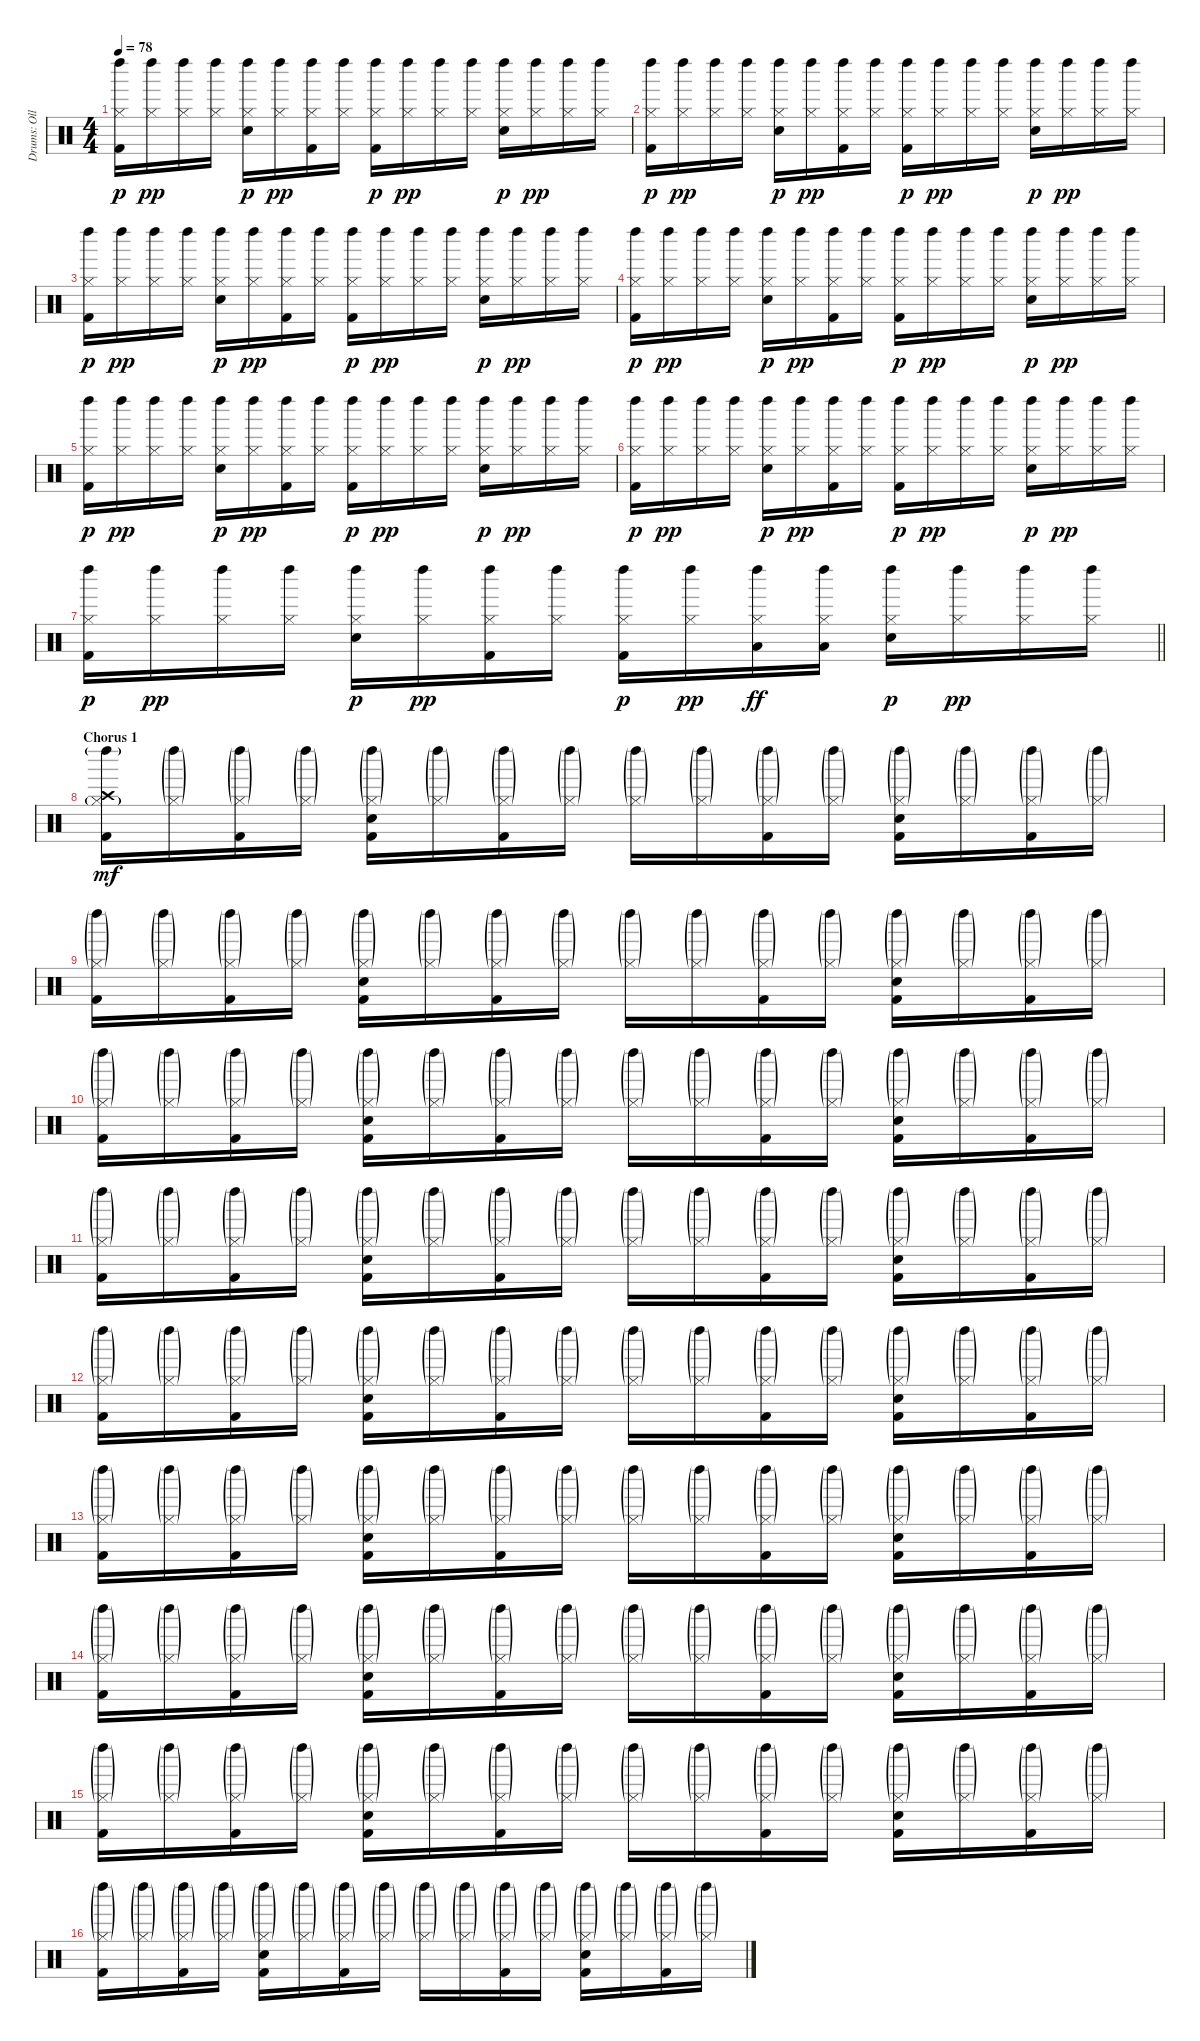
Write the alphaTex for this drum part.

\track ("Drums: Olle Romeo" "Drums: Oll") {instrument percussion}
\staff {score}
\articulation defaults
\ts (4 4)
\tempo 78
\clef neutral
\ks c
("Kick (hit) 2" "Hi-Hat (closed)" "Left Maraca (hit)").16{dy p} ("Hi-Hat (closed)" "Left Maraca (hit)").16{dy pp} ("Hi-Hat (closed)" "Left Maraca (hit)").16 ("Hi-Hat (closed)" "Left Maraca (hit)").16 ("Snare (hit) 2" "Hi-Hat (closed)" "Left Maraca (hit)").16{dy p} ("Hi-Hat (closed)" "Left Maraca (hit)").16{dy pp} ("Kick (hit) 2" "Hi-Hat (closed)" "Left Maraca (hit)").16 ("Hi-Hat (closed)" "Left Maraca (hit)").16 ("Kick (hit) 2" "Hi-Hat (closed)" "Left Maraca (hit)").16{dy p} ("Hi-Hat (closed)" "Left Maraca (hit)").16{dy pp} ("Hi-Hat (closed)" "Left Maraca (hit)").16 ("Hi-Hat (closed)" "Left Maraca (hit)").16 ("Snare (hit) 2" "Hi-Hat (closed)" "Left Maraca (hit)").16{dy p} ("Hi-Hat (closed)" "Left Maraca (hit)").16{dy pp} ("Hi-Hat (closed)" "Left Maraca (hit)").16 ("Hi-Hat (closed)" "Left Maraca (hit)").16 |
("Kick (hit) 2" "Hi-Hat (closed)" "Left Maraca (hit)").16{dy p} ("Hi-Hat (closed)" "Left Maraca (hit)").16{dy pp} ("Hi-Hat (closed)" "Left Maraca (hit)").16 ("Hi-Hat (closed)" "Left Maraca (hit)").16 ("Snare (hit) 2" "Hi-Hat (closed)" "Left Maraca (hit)").16{dy p} ("Hi-Hat (closed)" "Left Maraca (hit)").16{dy pp} ("Kick (hit) 2" "Hi-Hat (closed)" "Left Maraca (hit)").16 ("Hi-Hat (closed)" "Left Maraca (hit)").16 ("Kick (hit) 2" "Hi-Hat (closed)" "Left Maraca (hit)").16{dy p} ("Hi-Hat (closed)" "Left Maraca (hit)").16{dy pp} ("Hi-Hat (closed)" "Left Maraca (hit)").16 ("Hi-Hat (closed)" "Left Maraca (hit)").16 ("Snare (hit) 2" "Hi-Hat (closed)" "Left Maraca (hit)").16{dy p} ("Hi-Hat (closed)" "Left Maraca (hit)").16{dy pp} ("Hi-Hat (closed)" "Left Maraca (hit)").16 ("Hi-Hat (closed)" "Left Maraca (hit)").16 |
("Kick (hit) 2" "Hi-Hat (closed)" "Left Maraca (hit)").16{dy p} ("Hi-Hat (closed)" "Left Maraca (hit)").16{dy pp} ("Hi-Hat (closed)" "Left Maraca (hit)").16 ("Hi-Hat (closed)" "Left Maraca (hit)").16 ("Snare (hit) 2" "Hi-Hat (closed)" "Left Maraca (hit)").16{dy p} ("Hi-Hat (closed)" "Left Maraca (hit)").16{dy pp} ("Kick (hit) 2" "Hi-Hat (closed)" "Left Maraca (hit)").16 ("Hi-Hat (closed)" "Left Maraca (hit)").16 ("Kick (hit) 2" "Hi-Hat (closed)" "Left Maraca (hit)").16{dy p} ("Hi-Hat (closed)" "Left Maraca (hit)").16{dy pp} ("Hi-Hat (closed)" "Left Maraca (hit)").16 ("Hi-Hat (closed)" "Left Maraca (hit)").16 ("Snare (hit) 2" "Hi-Hat (closed)" "Left Maraca (hit)").16{dy p} ("Hi-Hat (closed)" "Left Maraca (hit)").16{dy pp} ("Hi-Hat (closed)" "Left Maraca (hit)").16 ("Hi-Hat (closed)" "Left Maraca (hit)").16 |
("Kick (hit) 2" "Hi-Hat (closed)" "Left Maraca (hit)").16{dy p} ("Hi-Hat (closed)" "Left Maraca (hit)").16{dy pp} ("Hi-Hat (closed)" "Left Maraca (hit)").16 ("Hi-Hat (closed)" "Left Maraca (hit)").16 ("Snare (hit) 2" "Hi-Hat (closed)" "Left Maraca (hit)").16{dy p} ("Hi-Hat (closed)" "Left Maraca (hit)").16{dy pp} ("Kick (hit) 2" "Hi-Hat (closed)" "Left Maraca (hit)").16 ("Hi-Hat (closed)" "Left Maraca (hit)").16 ("Kick (hit) 2" "Hi-Hat (closed)" "Left Maraca (hit)").16{dy p} ("Hi-Hat (closed)" "Left Maraca (hit)").16{dy pp} ("Hi-Hat (closed)" "Left Maraca (hit)").16 ("Hi-Hat (closed)" "Left Maraca (hit)").16 ("Snare (hit) 2" "Hi-Hat (closed)" "Left Maraca (hit)").16{dy p} ("Hi-Hat (closed)" "Left Maraca (hit)").16{dy pp} ("Hi-Hat (closed)" "Left Maraca (hit)").16 ("Hi-Hat (closed)" "Left Maraca (hit)").16 |
("Kick (hit) 2" "Hi-Hat (closed)" "Left Maraca (hit)").16{dy p} ("Hi-Hat (closed)" "Left Maraca (hit)").16{dy pp} ("Hi-Hat (closed)" "Left Maraca (hit)").16 ("Hi-Hat (closed)" "Left Maraca (hit)").16 ("Snare (hit) 2" "Hi-Hat (closed)" "Left Maraca (hit)").16{dy p} ("Hi-Hat (closed)" "Left Maraca (hit)").16{dy pp} ("Kick (hit) 2" "Hi-Hat (closed)" "Left Maraca (hit)").16 ("Hi-Hat (closed)" "Left Maraca (hit)").16 ("Kick (hit) 2" "Hi-Hat (closed)" "Left Maraca (hit)").16{dy p} ("Hi-Hat (closed)" "Left Maraca (hit)").16{dy pp} ("Hi-Hat (closed)" "Left Maraca (hit)").16 ("Hi-Hat (closed)" "Left Maraca (hit)").16 ("Snare (hit) 2" "Hi-Hat (closed)" "Left Maraca (hit)").16{dy p} ("Hi-Hat (closed)" "Left Maraca (hit)").16{dy pp} ("Hi-Hat (closed)" "Left Maraca (hit)").16 ("Hi-Hat (closed)" "Left Maraca (hit)").16 |
("Kick (hit) 2" "Hi-Hat (closed)" "Left Maraca (hit)").16{dy p} ("Hi-Hat (closed)" "Left Maraca (hit)").16{dy pp} ("Hi-Hat (closed)" "Left Maraca (hit)").16 ("Hi-Hat (closed)" "Left Maraca (hit)").16 ("Snare (hit) 2" "Hi-Hat (closed)" "Left Maraca (hit)").16{dy p} ("Hi-Hat (closed)" "Left Maraca (hit)").16{dy pp} ("Kick (hit) 2" "Hi-Hat (closed)" "Left Maraca (hit)").16 ("Hi-Hat (closed)" "Left Maraca (hit)").16 ("Kick (hit) 2" "Hi-Hat (closed)" "Left Maraca (hit)").16{dy p} ("Hi-Hat (closed)" "Left Maraca (hit)").16{dy pp} ("Hi-Hat (closed)" "Left Maraca (hit)").16 ("Hi-Hat (closed)" "Left Maraca (hit)").16 ("Snare (hit) 2" "Hi-Hat (closed)" "Left Maraca (hit)").16{dy p} ("Hi-Hat (closed)" "Left Maraca (hit)").16{dy pp} ("Hi-Hat (closed)" "Left Maraca (hit)").16 ("Hi-Hat (closed)" "Left Maraca (hit)").16 |
\barLineRight lightlight
("Kick (hit) 2" "Hi-Hat (closed)" "Left Maraca (hit)").16{dy p} ("Hi-Hat (closed)" "Left Maraca (hit)").16{dy pp} ("Hi-Hat (closed)" "Left Maraca (hit)").16 ("Hi-Hat (closed)" "Left Maraca (hit)").16 ("Snare (hit) 2" "Hi-Hat (closed)" "Left Maraca (hit)").16{dy p} ("Hi-Hat (closed)" "Left Maraca (hit)").16{dy pp} ("Kick (hit) 2" "Hi-Hat (closed)" "Left Maraca (hit)").16 ("Hi-Hat (closed)" "Left Maraca (hit)").16 ("Kick (hit) 2" "Hi-Hat (closed)" "Left Maraca (hit)").16{dy p} ("Hi-Hat (closed)" "Left Maraca (hit)").16{dy pp} ("Hi-Hat (closed)" "Left Maraca (hit)" "Low Floor Tom (hit)").16{dy ff} ("Hi-Hat (closed)" "Left Maraca (hit)" "Low Floor Tom (hit)").16 ("Snare (hit) 2" "Hi-Hat (closed)" "Left Maraca (hit)").16{dy p} ("Hi-Hat (closed)" "Left Maraca (hit)").16{dy pp} ("Hi-Hat (closed)" "Left Maraca (hit)").16 ("Hi-Hat (closed)" "Left Maraca (hit)").16 |
\section ("" "Chorus 1")
("Crash high (hit)" "Hi-Hat (closed)"{g} "Kick (hit) 2" "Left Maraca (hit)"{g}).16{dy mf} ("Hi-Hat (closed)"{g} "Left Maraca (hit)"{g}).16 ("Hi-Hat (closed)"{g} "Kick (hit) 2" "Left Maraca (hit)"{g}).16 ("Hi-Hat (closed)"{g} "Left Maraca (hit)"{g}).16 ("Hi-Hat (closed)"{g} "Snare (hit) 2" "Kick (hit) 2" "Left Maraca (hit)"{g}).16 ("Hi-Hat (closed)"{g} "Left Maraca (hit)"{g}).16 ("Hi-Hat (closed)"{g} "Kick (hit) 2" "Left Maraca (hit)"{g}).16 ("Hi-Hat (closed)"{g} "Left Maraca (hit)"{g}).16 ("Hi-Hat (closed)"{g} "Left Maraca (hit)"{g}).16 ("Hi-Hat (closed)"{g} "Left Maraca (hit)"{g}).16 ("Hi-Hat (closed)"{g} "Kick (hit) 2" "Left Maraca (hit)"{g}).16 ("Hi-Hat (closed)"{g} "Left Maraca (hit)"{g}).16 ("Hi-Hat (closed)"{g} "Snare (hit) 2" "Kick (hit) 2" "Left Maraca (hit)"{g}).16 ("Hi-Hat (closed)"{g} "Left Maraca (hit)"{g}).16 ("Hi-Hat (closed)"{g} "Kick (hit) 2" "Left Maraca (hit)"{g}).16 ("Hi-Hat (closed)"{g} "Left Maraca (hit)"{g}).16 |
("Hi-Hat (closed)"{g} "Kick (hit) 2" "Left Maraca (hit)"{g}).16 ("Hi-Hat (closed)"{g} "Left Maraca (hit)"{g}).16 ("Hi-Hat (closed)"{g} "Kick (hit) 2" "Left Maraca (hit)"{g}).16 ("Hi-Hat (closed)"{g} "Left Maraca (hit)"{g}).16 ("Hi-Hat (closed)"{g} "Snare (hit) 2" "Kick (hit) 2" "Left Maraca (hit)"{g}).16 ("Hi-Hat (closed)"{g} "Left Maraca (hit)"{g}).16 ("Hi-Hat (closed)"{g} "Kick (hit) 2" "Left Maraca (hit)"{g}).16 ("Hi-Hat (closed)"{g} "Left Maraca (hit)"{g}).16 ("Hi-Hat (closed)"{g} "Left Maraca (hit)"{g}).16 ("Hi-Hat (closed)"{g} "Left Maraca (hit)"{g}).16 ("Hi-Hat (closed)"{g} "Kick (hit) 2" "Left Maraca (hit)"{g}).16 ("Hi-Hat (closed)"{g} "Left Maraca (hit)"{g}).16 ("Hi-Hat (closed)"{g} "Snare (hit) 2" "Kick (hit) 2" "Left Maraca (hit)"{g}).16 ("Hi-Hat (closed)"{g} "Left Maraca (hit)"{g}).16 ("Hi-Hat (closed)"{g} "Kick (hit) 2" "Left Maraca (hit)"{g}).16 ("Hi-Hat (closed)"{g} "Left Maraca (hit)"{g}).16 |
("Hi-Hat (closed)"{g} "Kick (hit) 2" "Left Maraca (hit)"{g}).16 ("Hi-Hat (closed)"{g} "Left Maraca (hit)"{g}).16 ("Hi-Hat (closed)"{g} "Kick (hit) 2" "Left Maraca (hit)"{g}).16 ("Hi-Hat (closed)"{g} "Left Maraca (hit)"{g}).16 ("Hi-Hat (closed)"{g} "Snare (hit) 2" "Kick (hit) 2" "Left Maraca (hit)"{g}).16 ("Hi-Hat (closed)"{g} "Left Maraca (hit)"{g}).16 ("Hi-Hat (closed)"{g} "Kick (hit) 2" "Left Maraca (hit)"{g}).16 ("Hi-Hat (closed)"{g} "Left Maraca (hit)"{g}).16 ("Hi-Hat (closed)"{g} "Left Maraca (hit)"{g}).16 ("Hi-Hat (closed)"{g} "Left Maraca (hit)"{g}).16 ("Hi-Hat (closed)"{g} "Kick (hit) 2" "Left Maraca (hit)"{g}).16 ("Hi-Hat (closed)"{g} "Left Maraca (hit)"{g}).16 ("Hi-Hat (closed)"{g} "Snare (hit) 2" "Kick (hit) 2" "Left Maraca (hit)"{g}).16 ("Hi-Hat (closed)"{g} "Left Maraca (hit)"{g}).16 ("Hi-Hat (closed)"{g} "Kick (hit) 2" "Left Maraca (hit)"{g}).16 ("Hi-Hat (closed)"{g} "Left Maraca (hit)"{g}).16 |
("Hi-Hat (closed)"{g} "Kick (hit) 2" "Left Maraca (hit)"{g}).16 ("Hi-Hat (closed)"{g} "Left Maraca (hit)"{g}).16 ("Hi-Hat (closed)"{g} "Kick (hit) 2" "Left Maraca (hit)"{g}).16 ("Hi-Hat (closed)"{g} "Left Maraca (hit)"{g}).16 ("Hi-Hat (closed)"{g} "Snare (hit) 2" "Kick (hit) 2" "Left Maraca (hit)"{g}).16 ("Hi-Hat (closed)"{g} "Left Maraca (hit)"{g}).16 ("Hi-Hat (closed)"{g} "Kick (hit) 2" "Left Maraca (hit)"{g}).16 ("Hi-Hat (closed)"{g} "Left Maraca (hit)"{g}).16 ("Hi-Hat (closed)"{g} "Left Maraca (hit)"{g}).16 ("Hi-Hat (closed)"{g} "Left Maraca (hit)"{g}).16 ("Hi-Hat (closed)"{g} "Kick (hit) 2" "Left Maraca (hit)"{g}).16 ("Hi-Hat (closed)"{g} "Left Maraca (hit)"{g}).16 ("Hi-Hat (closed)"{g} "Snare (hit) 2" "Kick (hit) 2" "Left Maraca (hit)"{g}).16 ("Hi-Hat (closed)"{g} "Left Maraca (hit)"{g}).16 ("Hi-Hat (closed)"{g} "Kick (hit) 2" "Left Maraca (hit)"{g}).16 ("Hi-Hat (closed)"{g} "Left Maraca (hit)"{g}).16 |
("Hi-Hat (closed)"{g} "Kick (hit) 2" "Left Maraca (hit)"{g}).16 ("Hi-Hat (closed)"{g} "Left Maraca (hit)"{g}).16 ("Hi-Hat (closed)"{g} "Kick (hit) 2" "Left Maraca (hit)"{g}).16 ("Hi-Hat (closed)"{g} "Left Maraca (hit)"{g}).16 ("Hi-Hat (closed)"{g} "Snare (hit) 2" "Kick (hit) 2" "Left Maraca (hit)"{g}).16 ("Hi-Hat (closed)"{g} "Left Maraca (hit)"{g}).16 ("Hi-Hat (closed)"{g} "Kick (hit) 2" "Left Maraca (hit)"{g}).16 ("Hi-Hat (closed)"{g} "Left Maraca (hit)"{g}).16 ("Hi-Hat (closed)"{g} "Left Maraca (hit)"{g}).16 ("Hi-Hat (closed)"{g} "Left Maraca (hit)"{g}).16 ("Hi-Hat (closed)"{g} "Kick (hit) 2" "Left Maraca (hit)"{g}).16 ("Hi-Hat (closed)"{g} "Left Maraca (hit)"{g}).16 ("Hi-Hat (closed)"{g} "Snare (hit) 2" "Kick (hit) 2" "Left Maraca (hit)"{g}).16 ("Hi-Hat (closed)"{g} "Left Maraca (hit)"{g}).16 ("Hi-Hat (closed)"{g} "Kick (hit) 2" "Left Maraca (hit)"{g}).16 ("Hi-Hat (closed)"{g} "Left Maraca (hit)"{g}).16 |
("Hi-Hat (closed)"{g} "Kick (hit) 2" "Left Maraca (hit)"{g}).16 ("Hi-Hat (closed)"{g} "Left Maraca (hit)"{g}).16 ("Hi-Hat (closed)"{g} "Kick (hit) 2" "Left Maraca (hit)"{g}).16 ("Hi-Hat (closed)"{g} "Left Maraca (hit)"{g}).16 ("Hi-Hat (closed)"{g} "Snare (hit) 2" "Kick (hit) 2" "Left Maraca (hit)"{g}).16 ("Hi-Hat (closed)"{g} "Left Maraca (hit)"{g}).16 ("Hi-Hat (closed)"{g} "Kick (hit) 2" "Left Maraca (hit)"{g}).16 ("Hi-Hat (closed)"{g} "Left Maraca (hit)"{g}).16 ("Hi-Hat (closed)"{g} "Left Maraca (hit)"{g}).16 ("Hi-Hat (closed)"{g} "Left Maraca (hit)"{g}).16 ("Hi-Hat (closed)"{g} "Kick (hit) 2" "Left Maraca (hit)"{g}).16 ("Hi-Hat (closed)"{g} "Left Maraca (hit)"{g}).16 ("Hi-Hat (closed)"{g} "Snare (hit) 2" "Kick (hit) 2" "Left Maraca (hit)"{g}).16 ("Hi-Hat (closed)"{g} "Left Maraca (hit)"{g}).16 ("Hi-Hat (closed)"{g} "Kick (hit) 2" "Left Maraca (hit)"{g}).16 ("Hi-Hat (closed)"{g} "Left Maraca (hit)"{g}).16 |
("Hi-Hat (closed)"{g} "Kick (hit) 2" "Left Maraca (hit)"{g}).16 ("Hi-Hat (closed)"{g} "Left Maraca (hit)"{g}).16 ("Hi-Hat (closed)"{g} "Kick (hit) 2" "Left Maraca (hit)"{g}).16 ("Hi-Hat (closed)"{g} "Left Maraca (hit)"{g}).16 ("Hi-Hat (closed)"{g} "Snare (hit) 2" "Kick (hit) 2" "Left Maraca (hit)"{g}).16 ("Hi-Hat (closed)"{g} "Left Maraca (hit)"{g}).16 ("Hi-Hat (closed)"{g} "Kick (hit) 2" "Left Maraca (hit)"{g}).16 ("Hi-Hat (closed)"{g} "Left Maraca (hit)"{g}).16 ("Hi-Hat (closed)"{g} "Left Maraca (hit)"{g}).16 ("Hi-Hat (closed)"{g} "Left Maraca (hit)"{g}).16 ("Hi-Hat (closed)"{g} "Kick (hit) 2" "Left Maraca (hit)"{g}).16 ("Hi-Hat (closed)"{g} "Left Maraca (hit)"{g}).16 ("Hi-Hat (closed)"{g} "Snare (hit) 2" "Kick (hit) 2" "Left Maraca (hit)"{g}).16 ("Hi-Hat (closed)"{g} "Left Maraca (hit)"{g}).16 ("Hi-Hat (closed)"{g} "Kick (hit) 2" "Left Maraca (hit)"{g}).16 ("Hi-Hat (closed)"{g} "Left Maraca (hit)"{g}).16 |
("Hi-Hat (closed)"{g} "Kick (hit) 2" "Left Maraca (hit)"{g}).16 ("Hi-Hat (closed)"{g} "Left Maraca (hit)"{g}).16 ("Hi-Hat (closed)"{g} "Kick (hit) 2" "Left Maraca (hit)"{g}).16 ("Hi-Hat (closed)"{g} "Left Maraca (hit)"{g}).16 ("Hi-Hat (closed)"{g} "Snare (hit) 2" "Kick (hit) 2" "Left Maraca (hit)"{g}).16 ("Hi-Hat (closed)"{g} "Left Maraca (hit)"{g}).16 ("Hi-Hat (closed)"{g} "Kick (hit) 2" "Left Maraca (hit)"{g}).16 ("Hi-Hat (closed)"{g} "Left Maraca (hit)"{g}).16 ("Hi-Hat (closed)"{g} "Left Maraca (hit)"{g}).16 ("Hi-Hat (closed)"{g} "Left Maraca (hit)"{g}).16 ("Hi-Hat (closed)"{g} "Kick (hit) 2" "Left Maraca (hit)"{g}).16 ("Hi-Hat (closed)"{g} "Left Maraca (hit)"{g}).16 ("Hi-Hat (closed)"{g} "Snare (hit) 2" "Kick (hit) 2" "Left Maraca (hit)"{g}).16 ("Hi-Hat (closed)"{g} "Left Maraca (hit)"{g}).16 ("Hi-Hat (closed)"{g} "Kick (hit) 2" "Left Maraca (hit)"{g}).16 ("Hi-Hat (closed)"{g} "Left Maraca (hit)"{g}).16 |
("Hi-Hat (closed)"{g} "Kick (hit) 2" "Left Maraca (hit)"{g}).16 ("Hi-Hat (closed)"{g} "Left Maraca (hit)"{g}).16 ("Hi-Hat (closed)"{g} "Kick (hit) 2" "Left Maraca (hit)"{g}).16 ("Hi-Hat (closed)"{g} "Left Maraca (hit)"{g}).16 ("Hi-Hat (closed)"{g} "Snare (hit) 2" "Kick (hit) 2" "Left Maraca (hit)"{g}).16 ("Hi-Hat (closed)"{g} "Left Maraca (hit)"{g}).16 ("Hi-Hat (closed)"{g} "Kick (hit) 2" "Left Maraca (hit)"{g}).16 ("Hi-Hat (closed)"{g} "Left Maraca (hit)"{g}).16 ("Hi-Hat (closed)"{g} "Left Maraca (hit)"{g}).16 ("Hi-Hat (closed)"{g} "Left Maraca (hit)"{g}).16 ("Hi-Hat (closed)"{g} "Kick (hit) 2" "Left Maraca (hit)"{g}).16 ("Hi-Hat (closed)"{g} "Left Maraca (hit)"{g}).16 ("Hi-Hat (closed)"{g} "Snare (hit) 2" "Kick (hit) 2" "Left Maraca (hit)"{g}).16 ("Hi-Hat (closed)"{g} "Left Maraca (hit)"{g}).16 ("Hi-Hat (closed)"{g} "Kick (hit) 2" "Left Maraca (hit)"{g}).16 ("Hi-Hat (closed)"{g} "Left Maraca (hit)"{g}).16
